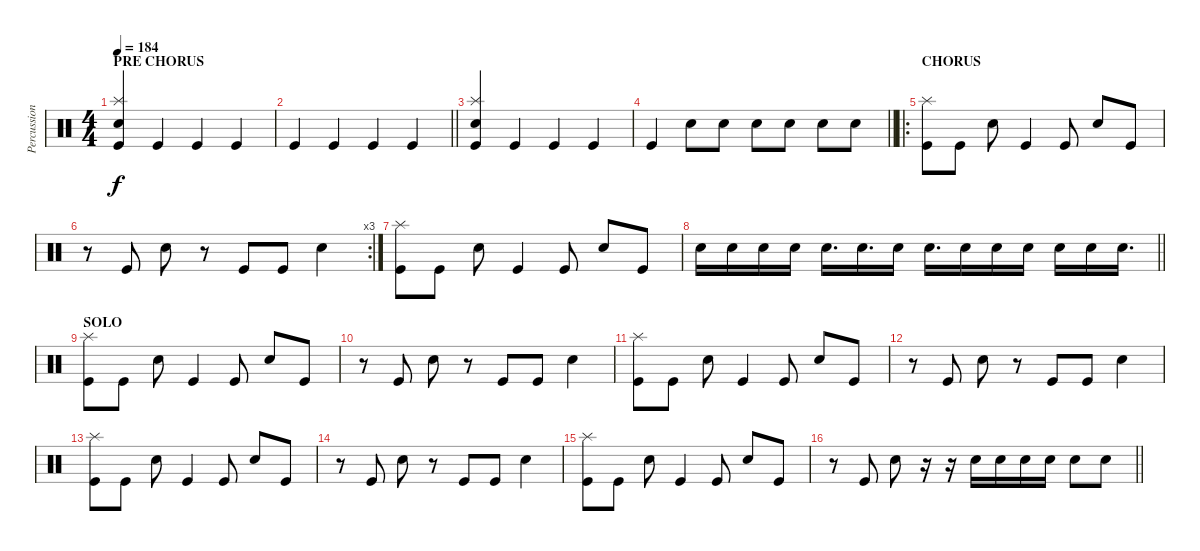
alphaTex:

\track ("Percussions" "Percussion") {instrument percussion}
\staff {score}
\articulation defaults
\ts (4 4)
\section ("" "PRE CHORUS")
\tempo 184
\clef neutral
\ks c
("Electric Snare (hit)" "Splash (hit)" "Kick (hit)").4{dy f} "Kick (hit)".4 "Kick (hit)".4 "Kick (hit)".4 |
\barLineRight lightlight "Kick (hit)".4 "Kick (hit)".4 "Kick (hit)".4 "Kick (hit)".4
|
("Electric Snare (hit)" "Splash (hit)" "Kick (hit)").4 "Kick (hit)".4 "Kick (hit)".4 "Kick (hit)".4 |
\barLineRight lightlight "Kick (hit)".4 "Electric Snare (hit)".8 "Electric Snare (hit)".8 "Electric Snare (hit)".8 "Electric Snare (hit)".8 "Electric Snare (hit)".8 "Electric Snare (hit)".8
|
\ro
\section ("" "CHORUS")
("Splash (hit)" "Kick (hit)").8 "Kick (hit)".8 "Electric Snare (hit)".8 "Kick (hit)".4 "Kick (hit)".8 "Electric Snare (hit)".8 "Kick (hit)".8 |
\rc 3
r.8 "Kick (hit)".8 "Electric Snare (hit)".8 r.8 "Kick (hit)".8 "Kick (hit)".8 "Electric Snare (hit)".4 |
("Splash (hit)" "Kick (hit)").8 "Kick (hit)".8 "Electric Snare (hit)".8 "Kick (hit)".4 "Kick (hit)".8 "Electric Snare (hit)".8 "Kick (hit)".8 |
\barLineRight lightlight "Electric Snare (hit)".16 "Electric Snare (hit)".16 "Electric Snare (hit)".16 "Electric Snare (hit)".16 "Electric Snare (hit)".16{d} "Electric Snare (hit)".16{d} "Electric Snare (hit)".16 "Electric Snare (hit)".16{d} "Electric Snare (hit)".16 "Electric Snare (hit)".16 "Electric Snare (hit)".16 "Electric Snare (hit)".16 "Electric Snare (hit)".16 "Electric Snare (hit)".16{d}
|
\section ("" "SOLO")
("Splash (hit)" "Kick (hit)").8 "Kick (hit)".8 "Electric Snare (hit)".8 "Kick (hit)".4 "Kick (hit)".8 "Electric Snare (hit)".8 "Kick (hit)".8 |
r.8 "Kick (hit)".8 "Electric Snare (hit)".8 r.8 "Kick (hit)".8 "Kick (hit)".8 "Electric Snare (hit)".4 |
("Splash (hit)" "Kick (hit)").8 "Kick (hit)".8 "Electric Snare (hit)".8 "Kick (hit)".4 "Kick (hit)".8 "Electric Snare (hit)".8 "Kick (hit)".8 |
r.8 "Kick (hit)".8 "Electric Snare (hit)".8 r.8 "Kick (hit)".8 "Kick (hit)".8 "Electric Snare (hit)".4 |
("Splash (hit)" "Kick (hit)").8 "Kick (hit)".8 "Electric Snare (hit)".8 "Kick (hit)".4 "Kick (hit)".8 "Electric Snare (hit)".8 "Kick (hit)".8 |
r.8 "Kick (hit)".8 "Electric Snare (hit)".8 r.8 "Kick (hit)".8 "Kick (hit)".8 "Electric Snare (hit)".4 |
("Splash (hit)" "Kick (hit)").8 "Kick (hit)".8 "Electric Snare (hit)".8 "Kick (hit)".4 "Kick (hit)".8 "Electric Snare (hit)".8 "Kick (hit)".8 |
\barLineRight lightlight
r.8 "Kick (hit)".8 "Electric Snare (hit)".8 r.16 r.16 "Electric Snare (hit)".16 "Electric Snare (hit)".16 "Electric Snare (hit)".16 "Electric Snare (hit)".16 "Electric Snare (hit)".8 "Electric Snare (hit)".8
